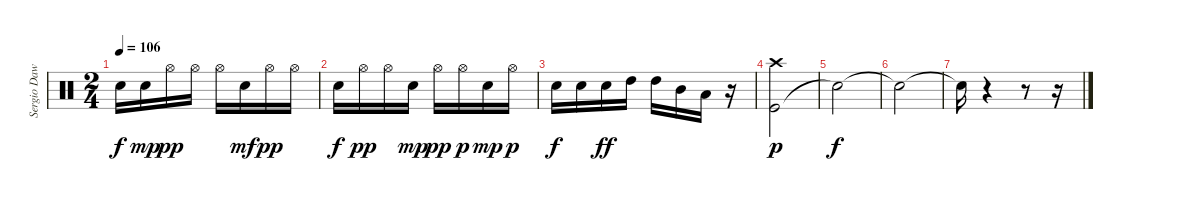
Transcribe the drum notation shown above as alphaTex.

\track ("Sergio Dawi" "Sergio Daw") {instrument percussion}
\staff {score}
\articulation defaults
\ts (2 4)
\tempo 106
\clef neutral
\ks c "Electric Snare (hit)".16{dy f} "Electric Snare (hit)".16{dy mp} "Hi-Hat (open)".16{dy pp} "Hi-Hat (open)".16 "Hi-Hat (open)".16 "Electric Snare (hit)".16{dy mf} "Hi-Hat (open)".16{dy pp} "Hi-Hat (open)".16
|
"Electric Snare (hit)".16{dy f} "Hi-Hat (open)".16{dy pp} "Hi-Hat (open)".16 "Electric Snare (hit)".16{dy mp} "Hi-Hat (open)".16{dy pp} "Hi-Hat (open)".16{dy p} "Electric Snare (hit)".16{dy mp} "Hi-Hat (open)".16{dy p} |
"Electric Snare (hit)".16{dy f volume 16} "Electric Snare (hit)".16 "Electric Snare (hit)".16{dy ff} "High Tom (hit)".16 "High Tom (hit)".16 "Mid Tom (hit)".16 "Low Tom (hit)".16 r.16 |
("Kick (hit)" "Crash high (hit)").2{dy p} |
"Snare (hit)"{t}.2{dy f} |
"Snare (hit)"{t}.2 |
"Snare (hit)"{t}.16 r.4 r.8 r.16
